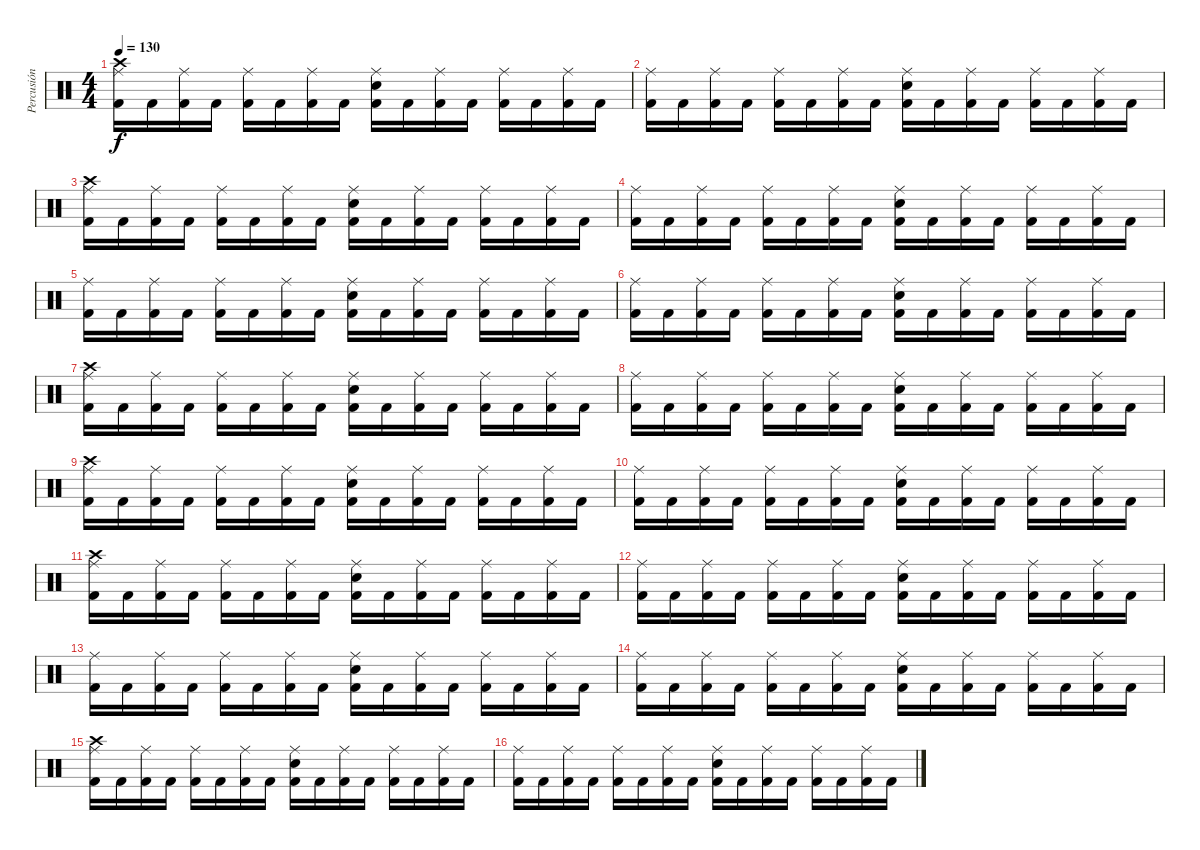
\track ("Percusión" "Percusión") {instrument percussion}
\staff {score}
\articulation defaults
\ts (4 4)
\tempo 130
\clef neutral
\ks c
("Crash high (hit)" "Kick (hit) 2" "Ride (middle)").16{dy f} "Kick (hit) 2".16 ("Kick (hit) 2" "Ride (middle)").16 "Kick (hit) 2".16 ("Kick (hit) 2" "Ride (middle)").16 "Kick (hit) 2".16 ("Kick (hit) 2" "Ride (middle)").16 "Kick (hit) 2".16 ("Electric Snare (hit)" "Kick (hit) 2" "Ride (middle)").16 "Kick (hit) 2".16 ("Kick (hit) 2" "Ride (middle)").16 "Kick (hit) 2".16 ("Kick (hit) 2" "Ride (middle)").16 "Kick (hit) 2".16 ("Kick (hit) 2" "Ride (middle)").16 "Kick (hit) 2".16 |
("Kick (hit) 2" "Ride (middle)").16 "Kick (hit) 2".16 ("Kick (hit) 2" "Ride (middle)").16 "Kick (hit) 2".16 ("Kick (hit) 2" "Ride (middle)").16 "Kick (hit) 2".16 ("Kick (hit) 2" "Ride (middle)").16 "Kick (hit) 2".16 ("Electric Snare (hit)" "Kick (hit) 2" "Ride (middle)").16 "Kick (hit) 2".16 ("Kick (hit) 2" "Ride (middle)").16 "Kick (hit) 2".16 ("Kick (hit) 2" "Ride (middle)").16 "Kick (hit) 2".16 ("Kick (hit) 2" "Ride (middle)").16 "Kick (hit) 2".16 |
("Crash high (hit)" "Kick (hit) 2" "Ride (middle)").16 "Kick (hit) 2".16 ("Kick (hit) 2" "Ride (middle)").16 "Kick (hit) 2".16 ("Kick (hit) 2" "Ride (middle)").16 "Kick (hit) 2".16 ("Kick (hit) 2" "Ride (middle)").16 "Kick (hit) 2".16 ("Electric Snare (hit)" "Kick (hit) 2" "Ride (middle)").16 "Kick (hit) 2".16 ("Kick (hit) 2" "Ride (middle)").16 "Kick (hit) 2".16 ("Kick (hit) 2" "Ride (middle)").16 "Kick (hit) 2".16 ("Kick (hit) 2" "Ride (middle)").16 "Kick (hit) 2".16 |
("Kick (hit) 2" "Ride (middle)").16 "Kick (hit) 2".16 ("Kick (hit) 2" "Ride (middle)").16 "Kick (hit) 2".16 ("Kick (hit) 2" "Ride (middle)").16 "Kick (hit) 2".16 ("Kick (hit) 2" "Ride (middle)").16 "Kick (hit) 2".16 ("Electric Snare (hit)" "Kick (hit) 2" "Ride (middle)").16 "Kick (hit) 2".16 ("Kick (hit) 2" "Ride (middle)").16 "Kick (hit) 2".16 ("Kick (hit) 2" "Ride (middle)").16 "Kick (hit) 2".16 ("Kick (hit) 2" "Ride (middle)").16 "Kick (hit) 2".16 |
("Kick (hit) 2" "Ride (middle)").16 "Kick (hit) 2".16 ("Kick (hit) 2" "Ride (middle)").16 "Kick (hit) 2".16 ("Kick (hit) 2" "Ride (middle)").16 "Kick (hit) 2".16 ("Kick (hit) 2" "Ride (middle)").16 "Kick (hit) 2".16 ("Electric Snare (hit)" "Kick (hit) 2" "Ride (middle)").16 "Kick (hit) 2".16 ("Kick (hit) 2" "Ride (middle)").16 "Kick (hit) 2".16 ("Kick (hit) 2" "Ride (middle)").16 "Kick (hit) 2".16 ("Kick (hit) 2" "Ride (middle)").16 "Kick (hit) 2".16 |
("Kick (hit) 2" "Ride (middle)").16 "Kick (hit) 2".16 ("Kick (hit) 2" "Ride (middle)").16 "Kick (hit) 2".16 ("Kick (hit) 2" "Ride (middle)").16 "Kick (hit) 2".16 ("Kick (hit) 2" "Ride (middle)").16 "Kick (hit) 2".16 ("Electric Snare (hit)" "Kick (hit) 2" "Ride (middle)").16 "Kick (hit) 2".16 ("Kick (hit) 2" "Ride (middle)").16 "Kick (hit) 2".16 ("Kick (hit) 2" "Ride (middle)").16 "Kick (hit) 2".16 ("Kick (hit) 2" "Ride (middle)").16 "Kick (hit) 2".16 |
("Crash high (hit)" "Kick (hit) 2" "Ride (middle)").16 "Kick (hit) 2".16 ("Kick (hit) 2" "Ride (middle)").16 "Kick (hit) 2".16 ("Kick (hit) 2" "Ride (middle)").16 "Kick (hit) 2".16 ("Kick (hit) 2" "Ride (middle)").16 "Kick (hit) 2".16 ("Electric Snare (hit)" "Kick (hit) 2" "Ride (middle)").16 "Kick (hit) 2".16 ("Kick (hit) 2" "Ride (middle)").16 "Kick (hit) 2".16 ("Kick (hit) 2" "Ride (middle)").16 "Kick (hit) 2".16 ("Kick (hit) 2" "Ride (middle)").16 "Kick (hit) 2".16 |
("Kick (hit) 2" "Ride (middle)").16 "Kick (hit) 2".16 ("Kick (hit) 2" "Ride (middle)").16 "Kick (hit) 2".16 ("Kick (hit) 2" "Ride (middle)").16 "Kick (hit) 2".16 ("Kick (hit) 2" "Ride (middle)").16 "Kick (hit) 2".16 ("Electric Snare (hit)" "Kick (hit) 2" "Ride (middle)").16 "Kick (hit) 2".16 ("Kick (hit) 2" "Ride (middle)").16 "Kick (hit) 2".16 ("Kick (hit) 2" "Ride (middle)").16 "Kick (hit) 2".16 ("Kick (hit) 2" "Ride (middle)").16 "Kick (hit) 2".16 |
("Crash high (hit)" "Kick (hit) 2" "Ride (middle)").16 "Kick (hit) 2".16 ("Kick (hit) 2" "Ride (middle)").16 "Kick (hit) 2".16 ("Kick (hit) 2" "Ride (middle)").16 "Kick (hit) 2".16 ("Kick (hit) 2" "Ride (middle)").16 "Kick (hit) 2".16 ("Electric Snare (hit)" "Kick (hit) 2" "Ride (middle)").16 "Kick (hit) 2".16 ("Kick (hit) 2" "Ride (middle)").16 "Kick (hit) 2".16 ("Kick (hit) 2" "Ride (middle)").16 "Kick (hit) 2".16 ("Kick (hit) 2" "Ride (middle)").16 "Kick (hit) 2".16 |
("Kick (hit) 2" "Ride (middle)").16 "Kick (hit) 2".16 ("Kick (hit) 2" "Ride (middle)").16 "Kick (hit) 2".16 ("Kick (hit) 2" "Ride (middle)").16 "Kick (hit) 2".16 ("Kick (hit) 2" "Ride (middle)").16 "Kick (hit) 2".16 ("Electric Snare (hit)" "Kick (hit) 2" "Ride (middle)").16 "Kick (hit) 2".16 ("Kick (hit) 2" "Ride (middle)").16 "Kick (hit) 2".16 ("Kick (hit) 2" "Ride (middle)").16 "Kick (hit) 2".16 ("Kick (hit) 2" "Ride (middle)").16 "Kick (hit) 2".16 |
("Crash high (hit)" "Kick (hit) 2" "Ride (middle)").16 "Kick (hit) 2".16 ("Kick (hit) 2" "Ride (middle)").16 "Kick (hit) 2".16 ("Kick (hit) 2" "Ride (middle)").16 "Kick (hit) 2".16 ("Kick (hit) 2" "Ride (middle)").16 "Kick (hit) 2".16 ("Electric Snare (hit)" "Kick (hit) 2" "Ride (middle)").16 "Kick (hit) 2".16 ("Kick (hit) 2" "Ride (middle)").16 "Kick (hit) 2".16 ("Kick (hit) 2" "Ride (middle)").16 "Kick (hit) 2".16 ("Kick (hit) 2" "Ride (middle)").16 "Kick (hit) 2".16 |
("Kick (hit) 2" "Ride (middle)").16 "Kick (hit) 2".16 ("Kick (hit) 2" "Ride (middle)").16 "Kick (hit) 2".16 ("Kick (hit) 2" "Ride (middle)").16 "Kick (hit) 2".16 ("Kick (hit) 2" "Ride (middle)").16 "Kick (hit) 2".16 ("Electric Snare (hit)" "Kick (hit) 2" "Ride (middle)").16 "Kick (hit) 2".16 ("Kick (hit) 2" "Ride (middle)").16 "Kick (hit) 2".16 ("Kick (hit) 2" "Ride (middle)").16 "Kick (hit) 2".16 ("Kick (hit) 2" "Ride (middle)").16 "Kick (hit) 2".16 |
("Kick (hit) 2" "Ride (middle)").16 "Kick (hit) 2".16 ("Kick (hit) 2" "Ride (middle)").16 "Kick (hit) 2".16 ("Kick (hit) 2" "Ride (middle)").16 "Kick (hit) 2".16 ("Kick (hit) 2" "Ride (middle)").16 "Kick (hit) 2".16 ("Electric Snare (hit)" "Kick (hit) 2" "Ride (middle)").16 "Kick (hit) 2".16 ("Kick (hit) 2" "Ride (middle)").16 "Kick (hit) 2".16 ("Kick (hit) 2" "Ride (middle)").16 "Kick (hit) 2".16 ("Kick (hit) 2" "Ride (middle)").16 "Kick (hit) 2".16 |
("Kick (hit) 2" "Ride (middle)").16 "Kick (hit) 2".16 ("Kick (hit) 2" "Ride (middle)").16 "Kick (hit) 2".16 ("Kick (hit) 2" "Ride (middle)").16 "Kick (hit) 2".16 ("Kick (hit) 2" "Ride (middle)").16 "Kick (hit) 2".16 ("Electric Snare (hit)" "Kick (hit) 2" "Ride (middle)").16 "Kick (hit) 2".16 ("Kick (hit) 2" "Ride (middle)").16 "Kick (hit) 2".16 ("Kick (hit) 2" "Ride (middle)").16 "Kick (hit) 2".16 ("Kick (hit) 2" "Ride (middle)").16 "Kick (hit) 2".16 |
("Crash high (hit)" "Kick (hit) 2" "Ride (middle)").16 "Kick (hit) 2".16 ("Kick (hit) 2" "Ride (middle)").16 "Kick (hit) 2".16 ("Kick (hit) 2" "Ride (middle)").16 "Kick (hit) 2".16 ("Kick (hit) 2" "Ride (middle)").16 "Kick (hit) 2".16 ("Electric Snare (hit)" "Kick (hit) 2" "Ride (middle)").16 "Kick (hit) 2".16 ("Kick (hit) 2" "Ride (middle)").16 "Kick (hit) 2".16 ("Kick (hit) 2" "Ride (middle)").16 "Kick (hit) 2".16 ("Kick (hit) 2" "Ride (middle)").16 "Kick (hit) 2".16 |
("Kick (hit) 2" "Ride (middle)").16 "Kick (hit) 2".16 ("Kick (hit) 2" "Ride (middle)").16 "Kick (hit) 2".16 ("Kick (hit) 2" "Ride (middle)").16 "Kick (hit) 2".16 ("Kick (hit) 2" "Ride (middle)").16 "Kick (hit) 2".16 ("Electric Snare (hit)" "Kick (hit) 2" "Ride (middle)").16 "Kick (hit) 2".16 ("Kick (hit) 2" "Ride (middle)").16 "Kick (hit) 2".16 ("Kick (hit) 2" "Ride (middle)").16 "Kick (hit) 2".16 ("Kick (hit) 2" "Ride (middle)").16 "Kick (hit) 2".16
